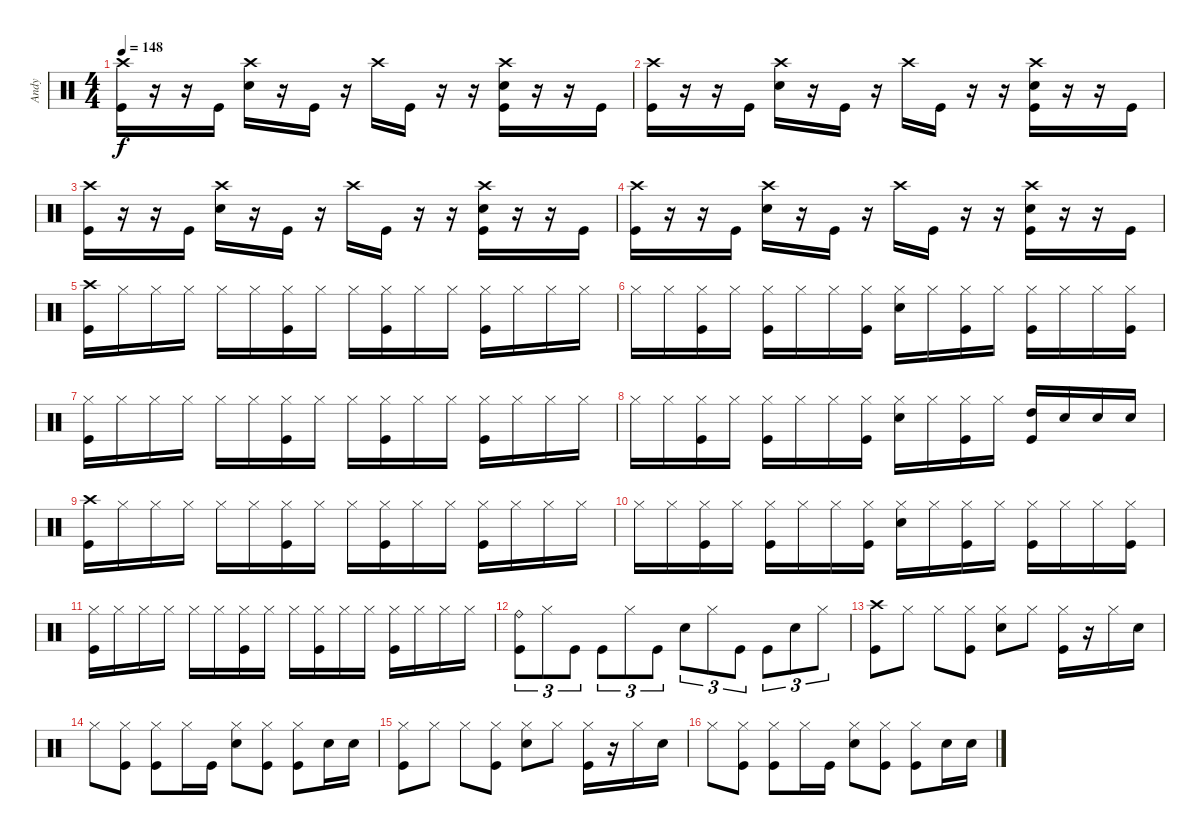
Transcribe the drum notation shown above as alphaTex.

\track ("Andy" "Andy") {instrument percussion}
\staff {score}
\articulation defaults
\ts (4 4)
\tempo 148
\clef neutral
\ks c
("Crash high (hit)" "Kick (hit)").16{dy f} r.16 r.16 "Kick (hit)".16 ("Crash high (hit)" "Snare (hit) 2").16 r.16 "Kick (hit)".16 r.16 "Crash high (hit)".16 "Kick (hit)".16 r.16 r.16 ("Crash high (hit)" "Kick (hit)" "Snare (hit) 2").16 r.16 r.16 "Kick (hit)".16 |
("Crash high (hit)" "Kick (hit)").16 r.16 r.16 "Kick (hit)".16 ("Crash high (hit)" "Snare (hit) 2").16 r.16 "Kick (hit)".16 r.16 "Crash high (hit)".16 "Kick (hit)".16 r.16 r.16 ("Crash high (hit)" "Kick (hit)" "Snare (hit) 2").16 r.16 r.16 "Kick (hit)".16 |
("Crash high (hit)" "Kick (hit)").16 r.16 r.16 "Kick (hit)".16 ("Crash high (hit)" "Snare (hit) 2").16 r.16 "Kick (hit)".16 r.16 "Crash high (hit)".16 "Kick (hit)".16 r.16 r.16 ("Crash high (hit)" "Kick (hit)" "Snare (hit) 2").16 r.16 r.16 "Kick (hit)".16 |
("Crash high (hit)" "Kick (hit)").16 r.16 r.16 "Kick (hit)".16 ("Crash high (hit)" "Snare (hit) 2").16 r.16 "Kick (hit)".16 r.16 "Crash high (hit)".16 "Kick (hit)".16 r.16 r.16 ("Crash high (hit)" "Kick (hit)" "Snare (hit) 2").16 r.16 r.16 "Kick (hit)".16 |
("Kick (hit)" "Crash high (hit)").16 "Hi-Hat (closed)".16 "Hi-Hat (closed)".16 "Hi-Hat (closed)".16 "Hi-Hat (closed)".16 "Hi-Hat (closed)".16 ("Hi-Hat (closed)" "Kick (hit)").16 "Hi-Hat (closed)".16 "Hi-Hat (closed)".16 ("Hi-Hat (closed)" "Kick (hit)").16 "Hi-Hat (closed)".16 "Hi-Hat (closed)".16 ("Hi-Hat (closed)" "Kick (hit)").16 "Hi-Hat (closed)".16 "Hi-Hat (closed)".16 "Hi-Hat (closed)".16 |
"Hi-Hat (closed)".16 "Hi-Hat (closed)".16 ("Hi-Hat (closed)" "Kick (hit)").16 "Hi-Hat (closed)".16 ("Hi-Hat (closed)" "Kick (hit)").16 "Hi-Hat (closed)".16 "Hi-Hat (closed)".16 ("Hi-Hat (closed)" "Kick (hit)").16 ("Hi-Hat (closed)" "Snare (hit) 2").16 "Hi-Hat (closed)".16 ("Hi-Hat (closed)" "Kick (hit)").16 "Hi-Hat (closed)".16 ("Hi-Hat (closed)" "Kick (hit)").16 "Hi-Hat (closed)".16 "Hi-Hat (closed)".16 ("Hi-Hat (closed)" "Kick (hit)").16 |
("Kick (hit)" "Hi-Hat (closed)").16 "Hi-Hat (closed)".16 "Hi-Hat (closed)".16 "Hi-Hat (closed)".16 "Hi-Hat (closed)".16 "Hi-Hat (closed)".16 ("Hi-Hat (closed)" "Kick (hit)").16 "Hi-Hat (closed)".16 "Hi-Hat (closed)".16 ("Hi-Hat (closed)" "Kick (hit)").16 "Hi-Hat (closed)".16 "Hi-Hat (closed)".16 ("Hi-Hat (closed)" "Kick (hit)").16 "Hi-Hat (closed)".16 "Hi-Hat (closed)".16 "Hi-Hat (closed)".16 |
"Hi-Hat (closed)".16 "Hi-Hat (closed)".16 ("Hi-Hat (closed)" "Kick (hit)").16 "Hi-Hat (closed)".16 ("Hi-Hat (closed)" "Kick (hit)").16 "Hi-Hat (closed)".16 "Hi-Hat (closed)".16 ("Hi-Hat (closed)" "Kick (hit)").16 ("Hi-Hat (closed)" "Snare (hit) 2").16 "Hi-Hat (closed)".16 ("Hi-Hat (closed)" "Kick (hit)").16 "Hi-Hat (closed)".16 ("High Tom (hit)" "Kick (hit)").16 "Snare (hit) 2".16 "Snare (hit) 2".16 "Snare (hit) 2".16 |
("Kick (hit)" "Crash high (hit)").16 "Hi-Hat (closed)".16 "Hi-Hat (closed)".16 "Hi-Hat (closed)".16 "Hi-Hat (closed)".16 "Hi-Hat (closed)".16 ("Hi-Hat (closed)" "Kick (hit)").16 "Hi-Hat (closed)".16 "Hi-Hat (closed)".16 ("Hi-Hat (closed)" "Kick (hit)").16 "Hi-Hat (closed)".16 "Hi-Hat (closed)".16 ("Hi-Hat (closed)" "Kick (hit)").16 "Hi-Hat (closed)".16 "Hi-Hat (closed)".16 "Hi-Hat (closed)".16 |
"Hi-Hat (closed)".16 "Hi-Hat (closed)".16 ("Hi-Hat (closed)" "Kick (hit)").16 "Hi-Hat (closed)".16 ("Hi-Hat (closed)" "Kick (hit)").16 "Hi-Hat (closed)".16 "Hi-Hat (closed)".16 ("Hi-Hat (closed)" "Kick (hit)").16 ("Hi-Hat (closed)" "Snare (hit) 2").16 "Hi-Hat (closed)".16 ("Hi-Hat (closed)" "Kick (hit)").16 "Hi-Hat (closed)".16 ("Hi-Hat (closed)" "Kick (hit)").16 "Hi-Hat (closed)".16 "Hi-Hat (closed)".16 ("Hi-Hat (closed)" "Kick (hit)").16 |
("Kick (hit)" "Hi-Hat (closed)").16 "Hi-Hat (closed)".16 "Hi-Hat (closed)".16 "Hi-Hat (closed)".16 "Hi-Hat (closed)".16 "Hi-Hat (closed)".16 ("Hi-Hat (closed)" "Kick (hit)").16 "Hi-Hat (closed)".16 "Hi-Hat (closed)".16 ("Hi-Hat (closed)" "Kick (hit)").16 "Hi-Hat (closed)".16 "Hi-Hat (closed)".16 ("Hi-Hat (closed)" "Kick (hit)").16 "Hi-Hat (closed)".16 "Hi-Hat (closed)".16 "Hi-Hat (closed)".16 |
("Kick (hit)" "Ride (bell)").8{tu (3 2)} "Hi-Hat (closed)".8{tu (3 2)} "Kick (hit)".8{tu (3 2)} "Kick (hit)".8{tu (3 2)} "Hi-Hat (closed)".8{tu (3 2)} "Kick (hit)".8{tu (3 2)} "Snare (hit) 2".8{tu (3 2)} "Hi-Hat (closed)".8{tu (3 2)} "Kick (hit)".8{tu (3 2)} "Kick (hit)".8{tu (3 2)} "Snare (hit) 2".8{tu (3 2)} "Hi-Hat (closed)".8{tu (3 2)} |
("Kick (hit)" "Crash high (hit)").8 "Hi-Hat (closed)".8 "Hi-Hat (closed)".8 ("Hi-Hat (closed)" "Kick (hit)").8 ("Hi-Hat (closed)" "Snare (hit) 2").8 "Hi-Hat (closed)".8 ("Kick (hit)" "Hi-Hat (closed)").16 r.16 "Hi-Hat (closed)".16 "Snare (hit) 2".16 |
"Hi-Hat (closed)".8 ("Hi-Hat (closed)" "Kick (hit)").8 ("Hi-Hat (closed)" "Kick (hit)").8 "Hi-Hat (closed)".16 "Kick (hit)".16 ("Snare (hit) 2" "Hi-Hat (closed)").8 ("Kick (hit)" "Hi-Hat (closed)").8 ("Kick (hit)" "Hi-Hat (closed)").8 "Snare (hit) 2".16 "Snare (hit) 2".16 |
("Kick (hit)" "Hi-Hat (closed)").8 "Hi-Hat (closed)".8 "Hi-Hat (closed)".8 ("Hi-Hat (closed)" "Kick (hit)").8 ("Hi-Hat (closed)" "Snare (hit) 2").8 "Hi-Hat (closed)".8 ("Kick (hit)" "Hi-Hat (closed)").16 r.16 "Hi-Hat (closed)".16 "Snare (hit) 2".16 |
"Hi-Hat (closed)".8 ("Hi-Hat (closed)" "Kick (hit)").8 ("Hi-Hat (closed)" "Kick (hit)").8 "Hi-Hat (closed)".16 "Kick (hit)".16 ("Snare (hit) 2" "Hi-Hat (closed)").8 ("Kick (hit)" "Hi-Hat (closed)").8 ("Kick (hit)" "Hi-Hat (closed)").8 "Snare (hit) 2".16 "Snare (hit) 2".16
